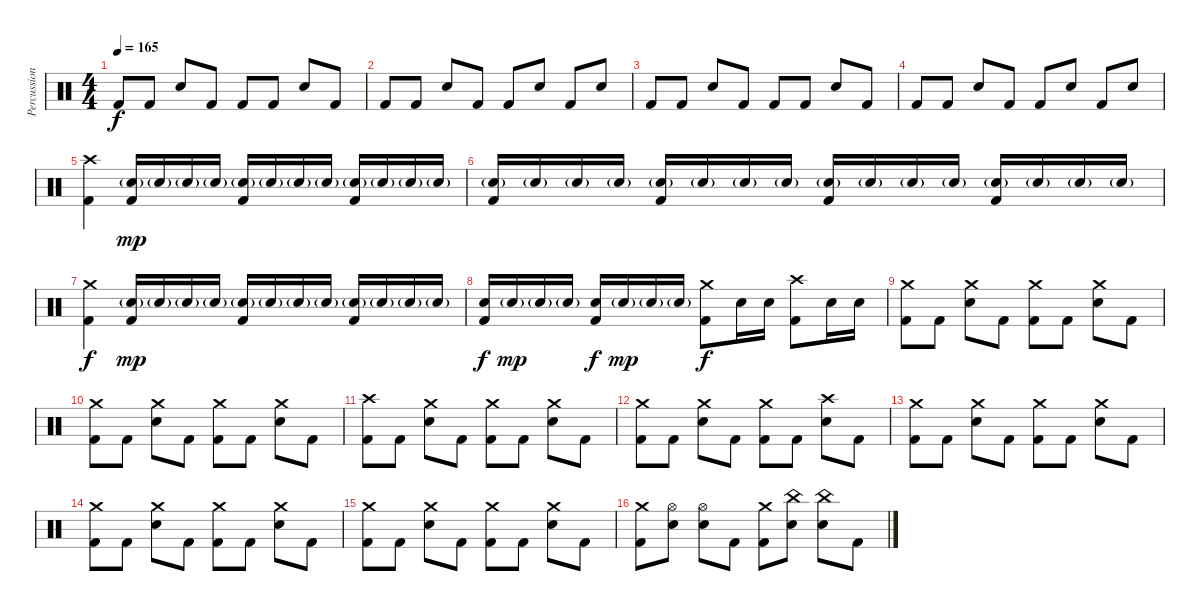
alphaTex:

\track ("Percussion" "Percussion") {instrument percussion}
\staff {score}
\articulation defaults
\ts (4 4)
\tempo 165
\clef neutral
\ks c "Kick (hit) 2".8{dy f} "Kick (hit) 2".8 "Snare (hit) 2".8 "Kick (hit) 2".8 "Kick (hit) 2".8 "Kick (hit) 2".8 "Snare (hit) 2".8 "Kick (hit) 2".8
|
"Kick (hit) 2".8 "Kick (hit) 2".8 "Snare (hit) 2".8 "Kick (hit) 2".8 "Kick (hit) 2".8 "Snare (hit) 2".8 "Kick (hit) 2".8 "Snare (hit) 2".8 |
"Kick (hit) 2".8 "Kick (hit) 2".8 "Snare (hit) 2".8 "Kick (hit) 2".8 "Kick (hit) 2".8 "Kick (hit) 2".8 "Snare (hit) 2".8 "Kick (hit) 2".8 |
"Kick (hit) 2".8 "Kick (hit) 2".8 "Snare (hit) 2".8 "Kick (hit) 2".8 "Kick (hit) 2".8 "Snare (hit) 2".8 "Kick (hit) 2".8 "Snare (hit) 2".8 |
("Crash high (hit)" "Kick (hit) 2").4 ("Snare (hit) 2"{g} "Kick (hit) 2").16{dy mp} "Snare (hit) 2"{g}.16 "Snare (hit) 2"{g}.16 "Snare (hit) 2"{g}.16 ("Snare (hit) 2"{g} "Kick (hit) 2").16 "Snare (hit) 2"{g}.16 "Snare (hit) 2"{g}.16 "Snare (hit) 2"{g}.16 ("Snare (hit) 2"{g} "Kick (hit) 2").16 "Snare (hit) 2"{g}.16 "Snare (hit) 2"{g}.16 "Snare (hit) 2"{g}.16 |
("Snare (hit) 2"{g} "Kick (hit) 2").16 "Snare (hit) 2"{g}.16 "Snare (hit) 2"{g}.16 "Snare (hit) 2"{g}.16 ("Snare (hit) 2"{g} "Kick (hit) 2").16 "Snare (hit) 2"{g}.16 "Snare (hit) 2"{g}.16 "Snare (hit) 2"{g}.16 ("Snare (hit) 2"{g} "Kick (hit) 2").16 "Snare (hit) 2"{g}.16 "Snare (hit) 2"{g}.16 "Snare (hit) 2"{g}.16 ("Snare (hit) 2"{g} "Kick (hit) 2").16 "Snare (hit) 2"{g}.16 "Snare (hit) 2"{g}.16 "Snare (hit) 2"{g}.16 |
("Crash medium (hit)" "Kick (hit) 2").4{dy f} ("Snare (hit) 2"{g} "Kick (hit) 2").16{dy mp} "Snare (hit) 2"{g}.16 "Snare (hit) 2"{g}.16 "Snare (hit) 2"{g}.16 ("Snare (hit) 2"{g} "Kick (hit) 2").16 "Snare (hit) 2"{g}.16 "Snare (hit) 2"{g}.16 "Snare (hit) 2"{g}.16 ("Snare (hit) 2"{g} "Kick (hit) 2").16 "Snare (hit) 2"{g}.16 "Snare (hit) 2"{g}.16 "Snare (hit) 2"{g}.16 |
("Snare (hit) 2" "Kick (hit) 2").16{dy f} "Snare (hit) 2"{g}.16{dy mp} "Snare (hit) 2"{g}.16 "Snare (hit) 2"{g}.16 ("Snare (hit) 2" "Kick (hit) 2").16{dy f} "Snare (hit) 2"{g}.16{dy mp} "Snare (hit) 2"{g}.16 "Snare (hit) 2"{g}.16 ("Crash medium (hit)" "Kick (hit) 2").8{dy f} "Snare (hit) 2".16 "Snare (hit) 2".16 ("Crash high (hit)" "Kick (hit) 2").8 "Snare (hit) 2".16 "Snare (hit) 2".16 |
("Crash medium (hit)" "Kick (hit) 2").8 "Kick (hit) 2".8 ("Crash medium (hit)" "Snare (hit) 2").8 "Kick (hit) 2".8 ("Crash medium (hit)" "Kick (hit) 2").8 "Kick (hit) 2".8 ("Crash medium (hit)" "Snare (hit) 2").8 "Kick (hit) 2".8 |
("Crash medium (hit)" "Kick (hit) 2").8 "Kick (hit) 2".8 ("Crash medium (hit)" "Snare (hit) 2").8 "Kick (hit) 2".8 ("Crash medium (hit)" "Kick (hit) 2").8 "Kick (hit) 2".8 ("Crash medium (hit)" "Snare (hit) 2").8 "Kick (hit) 2".8 |
("Crash high (hit)" "Kick (hit) 2").8 "Kick (hit) 2".8 ("Crash medium (hit)" "Snare (hit) 2").8 "Kick (hit) 2".8 ("Crash medium (hit)" "Kick (hit) 2").8 "Kick (hit) 2".8 ("Crash medium (hit)" "Snare (hit) 2").8 "Kick (hit) 2".8 |
("Crash medium (hit)" "Kick (hit) 2").8 "Kick (hit) 2".8 ("Crash medium (hit)" "Snare (hit) 2").8 "Kick (hit) 2".8 ("Crash medium (hit)" "Kick (hit) 2").8 "Kick (hit) 2".8 ("Crash high (hit)" "Snare (hit) 2").8 "Kick (hit) 2".8 |
("Crash medium (hit)" "Kick (hit) 2").8 "Kick (hit) 2".8 ("Crash medium (hit)" "Snare (hit) 2").8 "Kick (hit) 2".8 ("Crash medium (hit)" "Kick (hit) 2").8 "Kick (hit) 2".8 ("Crash medium (hit)" "Snare (hit) 2").8 "Kick (hit) 2".8 |
("Crash medium (hit)" "Kick (hit) 2").8 "Kick (hit) 2".8 ("Crash medium (hit)" "Snare (hit) 2").8 "Kick (hit) 2".8 ("Crash medium (hit)" "Kick (hit) 2").8 "Kick (hit) 2".8 ("Crash medium (hit)" "Snare (hit) 2").8 "Kick (hit) 2".8 |
("Crash medium (hit)" "Kick (hit) 2").8 "Kick (hit) 2".8 ("Crash medium (hit)" "Snare (hit) 2").8 "Kick (hit) 2".8 ("Crash medium (hit)" "Kick (hit) 2").8 "Kick (hit) 2".8 ("Crash medium (hit)" "Snare (hit) 2").8 "Kick (hit) 2".8 |
("Crash medium (hit)" "Kick (hit) 2").8 ("Hi-Hat (open)" "Snare (hit) 2").8 ("Hi-Hat (open)" "Snare (hit) 2").8 "Kick (hit) 2".8 ("Crash medium (hit)" "Kick (hit) 2").8 ("China (hit)" "Snare (hit) 2").8 ("China (hit)" "Snare (hit) 2").8 "Kick (hit) 2".8
